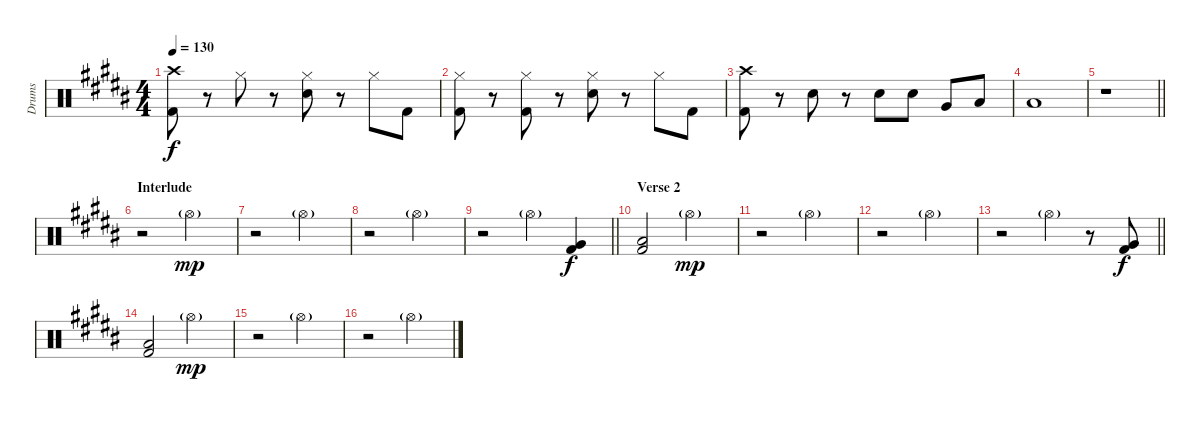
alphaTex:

\track ("Drums" "Drums") {instrument percussion}
\staff {score}
\articulation defaults
\ts (4 4)
\tempo 130
\clef neutral
\ks b
("Crash high (hit)" "Kick (hit) 2").8{dy f} r.8 "Hi-Hat (closed)".8 r.8 ("Hi-Hat (closed)" "Electric Snare (hit)").8 r.8 "Hi-Hat (closed)".8 "Kick (hit) 2".8 |
("Hi-Hat (closed)" "Kick (hit) 2").8 r.8 ("Hi-Hat (closed)" "Kick (hit) 2").8 r.8 ("Hi-Hat (closed)" "Electric Snare (hit)").8 r.8 "Hi-Hat (closed)".8 "Kick (hit) 2".8 |
("Crash high (hit)" "Kick (hit) 2").8 r.8 "Electric Snare (hit)".8 r.8 "Electric Snare (hit)".8 "Electric Snare (hit)".8 "Very Low Tom (hit)".8 "Low Floor Tom (hit)".8 |
"Low Floor Tom (hit)".1 |
\barLineRight lightlight
r.1 |
\section ("" "Interlude")
r.2 "Hi-Hat (open)"{g}.2{dy mp} |
r.2 "Hi-Hat (open)"{g}.2 |
r.2 "Hi-Hat (open)"{g}.2 |
\barLineRight lightlight
r.2 "Hi-Hat (open)"{g}.4 ("Very Low Tom (hit)" "Kick (hit) 2").4{dy f} |
\section ("" "Verse 2")
("Low Floor Tom (hit)" "Kick (hit) 2").2 "Hi-Hat (open)"{g}.2{dy mp} |
r.2 "Hi-Hat (open)"{g}.2 |
r.2 "Hi-Hat (open)"{g}.2 |
\barLineRight lightlight
r.2 "Hi-Hat (open)"{g}.4 r.8 ("Very Low Tom (hit)" "Kick (hit) 2").8{dy f} |
("Low Floor Tom (hit)" "Kick (hit) 2").2 "Hi-Hat (open)"{g}.2{dy mp} |
r.2 "Hi-Hat (open)"{g}.2 |
r.2 "Hi-Hat (open)"{g}.2
